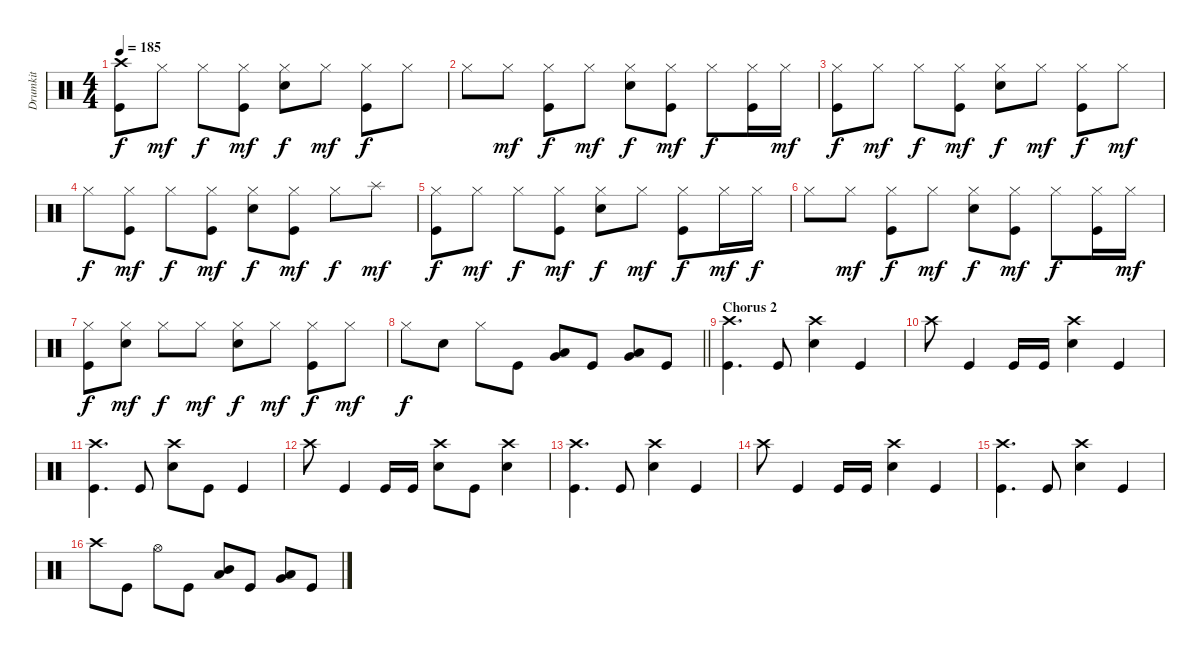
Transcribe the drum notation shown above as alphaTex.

\track ("Drumkit" "Drumkit") {instrument percussion}
\staff {score}
\articulation defaults
\ts (4 4)
\tempo 185
\clef neutral
\ks c
("Crash high (hit)" "Kick (hit)").8{dy f} "Hi-Hat (closed)".8{dy mf} "Hi-Hat (closed)".8{dy f} ("Hi-Hat (closed)" "Kick (hit)").8{dy mf} ("Hi-Hat (closed)" "Snare (hit) 2").8{dy f} "Hi-Hat (closed)".8{dy mf} ("Hi-Hat (closed)" "Kick (hit)").8{dy f} "Hi-Hat (closed)".8 |
"Hi-Hat (closed)".8 "Hi-Hat (closed)".8{dy mf} ("Hi-Hat (closed)" "Kick (hit)").8{dy f} "Hi-Hat (closed)".8{dy mf} ("Hi-Hat (closed)" "Snare (hit) 2").8{dy f} ("Hi-Hat (closed)" "Kick (hit)").8{dy mf} "Hi-Hat (closed)".8{dy f} ("Hi-Hat (closed)" "Kick (hit)").16 "Hi-Hat (closed)".16{dy mf} |
("Hi-Hat (closed)" "Kick (hit)").8{dy f} "Hi-Hat (closed)".8{dy mf} "Hi-Hat (closed)".8{dy f} ("Hi-Hat (closed)" "Kick (hit)").8{dy mf} ("Hi-Hat (closed)" "Snare (hit) 2").8{dy f} "Hi-Hat (closed)".8{dy mf} ("Hi-Hat (closed)" "Kick (hit)").8{dy f} "Hi-Hat (closed)".8{dy mf} |
"Hi-Hat (closed)".8{dy f} ("Hi-Hat (closed)" "Kick (hit)").8{dy mf} "Hi-Hat (closed)".8{dy f} ("Hi-Hat (closed)" "Kick (hit)").8{dy mf} ("Hi-Hat (closed)" "Snare (hit) 2").8{dy f} ("Hi-Hat (closed)" "Kick (hit)").8{dy mf} "Hi-Hat (closed)".8{dy f} "Splash (hit)".8{dy mf} |
("Hi-Hat (closed)" "Kick (hit)").8{dy f} "Hi-Hat (closed)".8{dy mf} "Hi-Hat (closed)".8{dy f} ("Hi-Hat (closed)" "Kick (hit)").8{dy mf} ("Hi-Hat (closed)" "Snare (hit) 2").8{dy f} "Hi-Hat (closed)".8{dy mf} ("Hi-Hat (closed)" "Kick (hit)").8{dy f} "Hi-Hat (closed)".16{dy mf} "Hi-Hat (closed)".16{dy f} |
"Hi-Hat (closed)".8 "Hi-Hat (closed)".8{dy mf} ("Hi-Hat (closed)" "Kick (hit)").8{dy f} "Hi-Hat (closed)".8{dy mf} ("Hi-Hat (closed)" "Snare (hit) 2").8{dy f} ("Hi-Hat (closed)" "Kick (hit)").8{dy mf} "Hi-Hat (closed)".8{dy f} ("Hi-Hat (closed)" "Kick (hit)").16 "Hi-Hat (closed)".16{dy mf} |
("Hi-Hat (closed)" "Kick (hit)").8{dy f} ("Hi-Hat (closed)" "Snare (hit) 2").8{dy mf} "Hi-Hat (closed)".8{dy f} "Hi-Hat (closed)".8{dy mf} ("Hi-Hat (closed)" "Snare (hit) 2").8{dy f} "Hi-Hat (closed)".8{dy mf} ("Hi-Hat (closed)" "Kick (hit)").8{dy f} "Hi-Hat (closed)".8{dy mf} |
\barLineRight lightlight "Hi-Hat (closed)".8{dy f} "Snare (hit) 2".8 "Hi-Hat (closed)".8 "Kick (hit)".8
("Low Floor Tom (hit)" "Very Low Tom (hit)").8 "Kick (hit)".8 ("Very Low Tom (hit)" "Low Floor Tom (hit)").8 "Kick (hit)".8 |
\section ("" "Chorus 2")
("Crash high (hit)" "Kick (hit)").4{d} "Kick (hit)".8 ("Snare (hit) 2" "Crash high (hit)").4 "Kick (hit)".4 |
"Crash high (hit)".8 "Kick (hit)".4 "Kick (hit)".16 "Kick (hit)".16 ("Snare (hit) 2" "Crash high (hit)").4 "Kick (hit)".4 |
("Crash high (hit)" "Kick (hit)").4{d} "Kick (hit)".8 ("Snare (hit) 2" "Crash high (hit)").8 "Kick (hit)".8 "Kick (hit)".4 |
"Crash high (hit)".8 "Kick (hit)".4 "Kick (hit)".16 "Kick (hit)".16 ("Crash high (hit)" "Snare (hit) 2").8 "Kick (hit)".8 ("Crash high (hit)" "Snare (hit) 2").4 |
("Crash high (hit)" "Kick (hit)").4{d} "Kick (hit)".8 ("Snare (hit) 2" "Crash high (hit)").4 "Kick (hit)".4 |
"Crash high (hit)".8 "Kick (hit)".4 "Kick (hit)".16 "Kick (hit)".16 ("Snare (hit) 2" "Crash high (hit)").4 "Kick (hit)".4 |
("Crash high (hit)" "Kick (hit)").4{d} "Kick (hit)".8 ("Snare (hit) 2" "Crash high (hit)").4 "Kick (hit)".4 |
"Crash high (hit)".8 "Kick (hit)".8 "Hi-Hat (open)".8 "Kick (hit)".8 ("Mid Tom (hit)" "Low Tom (hit)").8 "Kick (hit)".8 ("Low Floor Tom (hit)" "Very Low Tom (hit)").8 "Kick (hit)".8
